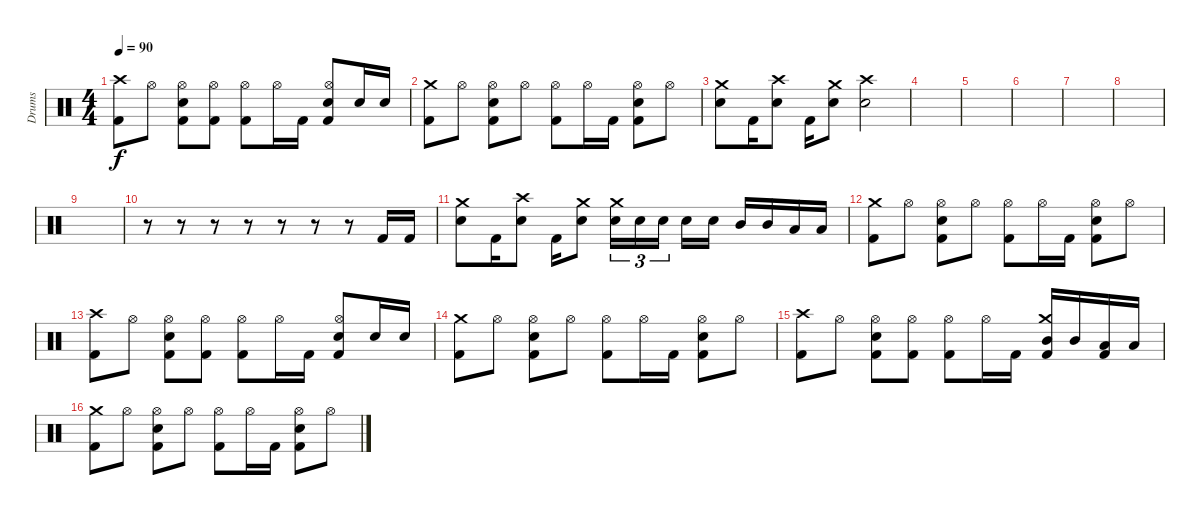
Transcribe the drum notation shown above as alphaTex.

\track ("Drums" "Drums") {instrument percussion}
\staff {score}
\articulation defaults
\ts (4 4)
\tempo 90
\clef neutral
\ks c
("Crash high (hit)" "Kick (hit) 2").8{dy f} "Hi-Hat (open)".8 ("Hi-Hat (open)" "Electric Snare (hit)" "Kick (hit) 2").8 ("Hi-Hat (open)" "Kick (hit) 2").8 ("Hi-Hat (open)" "Kick (hit) 2").8 "Hi-Hat (open)".16 "Kick (hit) 2".16 ("Hi-Hat (open)" "Electric Snare (hit)" "Kick (hit) 2").8 "Electric Snare (hit)".16 "Electric Snare (hit)".16 |
("Crash medium (hit)" "Kick (hit) 2").8 "Hi-Hat (open)".8 ("Hi-Hat (open)" "Electric Snare (hit)" "Kick (hit) 2").8 "Hi-Hat (open)".8 ("Hi-Hat (open)" "Kick (hit) 2").8 "Hi-Hat (open)".16 "Kick (hit) 2".16 ("Hi-Hat (open)" "Electric Snare (hit)" "Kick (hit) 2").8 "Hi-Hat (open)".8 |
("Crash medium (hit)" "Electric Snare (hit)").8 "Kick (hit) 2".16 ("Crash high (hit)" "Electric Snare (hit)").8 "Kick (hit) 2".16 ("Crash medium (hit)" "Electric Snare (hit)").8 ("Crash high (hit)" "Electric Snare (hit)").2 |
|
|
|
|
|
|
r.8 r.8 r.8 r.8 r.8 r.8 r.8 "Kick (hit) 2".16 "Kick (hit) 2".16 |
("Crash medium (hit)" "Electric Snare (hit)").8 "Kick (hit) 2".16 ("Crash high (hit)" "Electric Snare (hit)").8 "Kick (hit) 2".16 ("Crash medium (hit)" "Electric Snare (hit)").8 ("Crash medium (hit)" "Electric Snare (hit)").16{tu (3 2)} "Electric Snare (hit)".16{tu (3 2)} "Electric Snare (hit)".16{tu (3 2) beam splitsecondary} "Electric Snare (hit)".16 "Electric Snare (hit)".16 "Mid Tom (hit)".16 "Mid Tom (hit)".16 "Low Tom (hit)".16 "Low Tom (hit)".16 |
("Crash medium (hit)" "Kick (hit) 2").8 "Hi-Hat (open)".8 ("Hi-Hat (open)" "Electric Snare (hit)" "Kick (hit) 2").8 "Hi-Hat (open)".8 ("Hi-Hat (open)" "Kick (hit) 2").8 "Hi-Hat (open)".16 "Kick (hit) 2".16 ("Hi-Hat (open)" "Electric Snare (hit)" "Kick (hit) 2").8 "Hi-Hat (open)".8 |
("Crash high (hit)" "Kick (hit) 2").8 "Hi-Hat (open)".8 ("Hi-Hat (open)" "Electric Snare (hit)" "Kick (hit) 2").8 ("Hi-Hat (open)" "Kick (hit) 2").8 ("Hi-Hat (open)" "Kick (hit) 2").8 "Hi-Hat (open)".16 "Kick (hit) 2".16 ("Hi-Hat (open)" "Electric Snare (hit)" "Kick (hit) 2").8 "Electric Snare (hit)".16 "Electric Snare (hit)".16 |
("Crash medium (hit)" "Kick (hit) 2").8 "Hi-Hat (open)".8 ("Hi-Hat (open)" "Electric Snare (hit)" "Kick (hit) 2").8 "Hi-Hat (open)".8 ("Hi-Hat (open)" "Kick (hit) 2").8 "Hi-Hat (open)".16 "Kick (hit) 2".16 ("Hi-Hat (open)" "Electric Snare (hit)" "Kick (hit) 2").8 "Hi-Hat (open)".8 |
("Crash high (hit)" "Kick (hit) 2").8 "Hi-Hat (open)".8 ("Hi-Hat (open)" "Electric Snare (hit)" "Kick (hit) 2").8 ("Hi-Hat (open)" "Kick (hit) 2").8 ("Hi-Hat (open)" "Kick (hit) 2").8 "Hi-Hat (open)".16 "Kick (hit) 2".16 ("Crash medium (hit)" "Mid Tom (hit)" "Kick (hit) 2").16 "Mid Tom (hit)".16 ("Low Tom (hit)" "Kick (hit) 2").16 "Low Tom (hit)".16 |
("Crash medium (hit)" "Kick (hit) 2").8 "Hi-Hat (open)".8 ("Hi-Hat (open)" "Electric Snare (hit)" "Kick (hit) 2").8 "Hi-Hat (open)".8 ("Hi-Hat (open)" "Kick (hit) 2").8 "Hi-Hat (open)".16 "Kick (hit) 2".16 ("Hi-Hat (open)" "Electric Snare (hit)" "Kick (hit) 2").8 "Hi-Hat (open)".8
